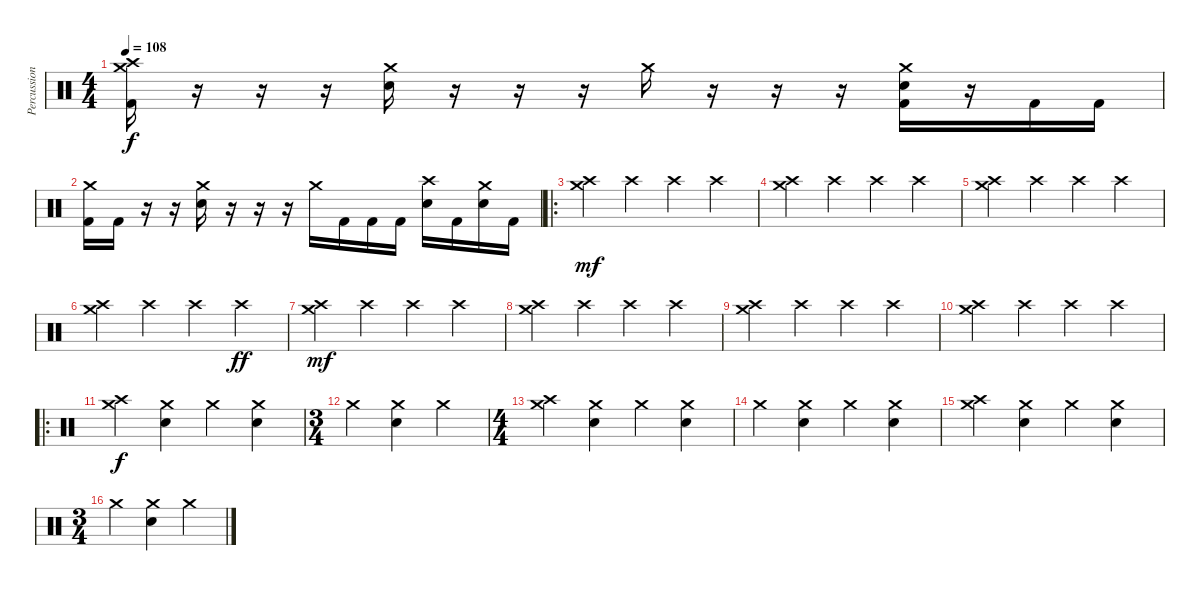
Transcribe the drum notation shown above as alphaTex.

\track ("Percussion" "Percussion") {instrument percussion}
\staff {score}
\articulation defaults
\ts (4 4)
\tempo 108
\clef neutral
\ks c
("Crash medium (hit)" "Crash high (hit)" "Kick (hit) 2").16{dy f} r.16 r.16 r.16 ("Crash medium (hit)" "Electric Snare (hit)").16 r.16 r.16 r.16 "Crash medium (hit)".16 r.16 r.16 r.16 ("Crash medium (hit)" "Electric Snare (hit)" "Kick (hit) 2").16 r.16 "Kick (hit) 2".16 "Kick (hit) 2".16 |
("Crash medium (hit)" "Kick (hit) 2").16 "Kick (hit) 2".16 r.16 r.16 ("Crash medium (hit)" "Electric Snare (hit)").16 r.16 r.16 r.16 "Crash medium (hit)".16 "Kick (hit) 2".16 "Kick (hit) 2".16 "Kick (hit) 2".16 ("Crash high (hit)" "Electric Snare (hit)").16 "Kick (hit) 2".16 ("Crash medium (hit)" "Electric Snare (hit)").16 "Kick (hit) 2".16 |
\ro
("Crash medium (hit)" "Crash high (hit)").4{dy mf} "Crash high (hit)".4 "Crash high (hit)".4 "Crash high (hit)".4 |
("Crash medium (hit)" "Crash high (hit)").4 "Crash high (hit)".4 "Crash high (hit)".4 "Crash high (hit)".4 |
("Crash medium (hit)" "Crash high (hit)").4 "Crash high (hit)".4 "Crash high (hit)".4 "Crash high (hit)".4 |
("Crash medium (hit)" "Crash high (hit)").4 "Crash high (hit)".4 "Crash high (hit)".4 "Crash high (hit)".4{dy ff} |
("Crash medium (hit)" "Crash high (hit)").4{dy mf} "Crash high (hit)".4 "Crash high (hit)".4 "Crash high (hit)".4 |
("Crash medium (hit)" "Crash high (hit)").4 "Crash high (hit)".4 "Crash high (hit)".4 "Crash high (hit)".4 |
("Crash medium (hit)" "Crash high (hit)").4 "Crash high (hit)".4 "Crash high (hit)".4 "Crash high (hit)".4 |
("Crash medium (hit)" "Crash high (hit)").4 "Crash high (hit)".4 "Crash high (hit)".4 "Crash high (hit)".4 |
\ro
("Crash medium (hit)" "Crash high (hit)").4{dy f} ("Crash medium (hit)" "Electric Snare (hit)").4 "Crash medium (hit)".4 ("Crash medium (hit)" "Electric Snare (hit)").4 |
\ts (3 4)
"Crash medium (hit)".4 ("Crash medium (hit)" "Electric Snare (hit)").4 "Crash medium (hit)".4 |
\ts (4 4)
("Crash medium (hit)" "Crash high (hit)").4 ("Crash medium (hit)" "Electric Snare (hit)").4 "Crash medium (hit)".4 ("Crash medium (hit)" "Electric Snare (hit)").4 |
"Crash medium (hit)".4 ("Crash medium (hit)" "Electric Snare (hit)").4 "Crash medium (hit)".4 ("Crash medium (hit)" "Electric Snare (hit)").4 |
("Crash medium (hit)" "Crash high (hit)").4 ("Crash medium (hit)" "Electric Snare (hit)").4 "Crash medium (hit)".4 ("Crash medium (hit)" "Electric Snare (hit)").4 |
\ts (3 4)
"Crash medium (hit)".4 ("Crash medium (hit)" "Electric Snare (hit)").4 "Crash medium (hit)".4
